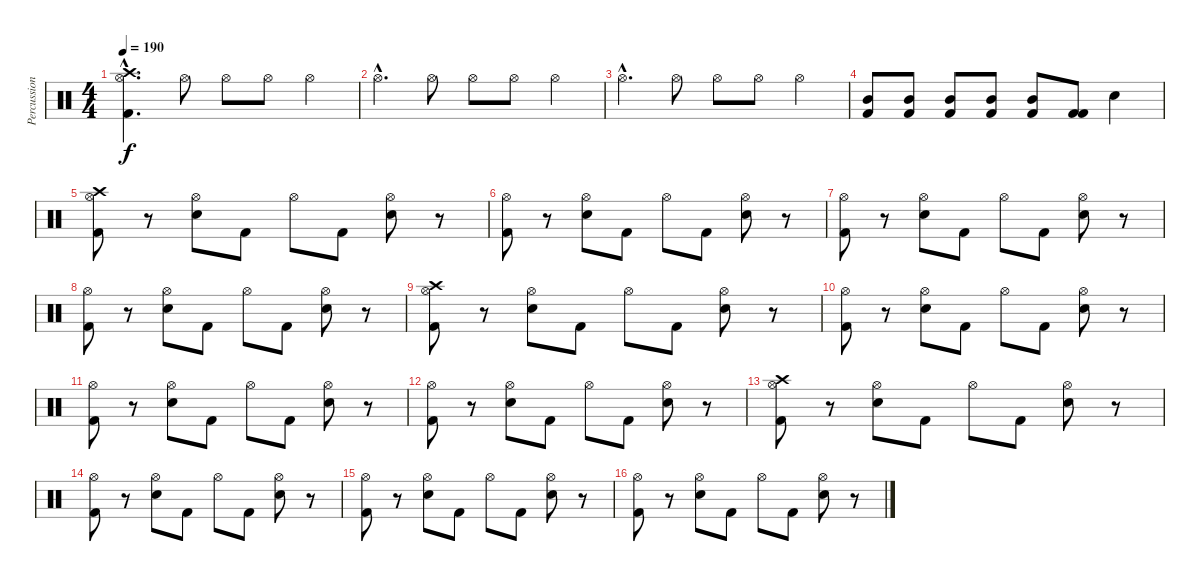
\track ("Percussioni" "Percussion") {instrument percussion}
\staff {score}
\articulation defaults
\ts (4 4)
\tempo 190
\clef neutral
\ks c
("Hi-Hat (open)"{hac} "Kick (hit) 2"{hac} "Crash high (hit)"{hac}).4{d dy f} "Hi-Hat (open)".8 "Hi-Hat (open)".8 "Hi-Hat (open)".8 "Hi-Hat (open)".4 |
"Hi-Hat (open)"{hac}.4{d} "Hi-Hat (open)".8 "Hi-Hat (open)".8 "Hi-Hat (open)".8 "Hi-Hat (open)".4 |
"Hi-Hat (open)"{hac}.4{d} "Hi-Hat (open)".8 "Hi-Hat (open)".8 "Hi-Hat (open)".8 "Hi-Hat (open)".4 |
("Kick (hit) 2" "Mid Tom (hit)").8 ("Kick (hit) 2" "Mid Tom (hit)").8 ("Kick (hit) 2" "Mid Tom (hit)").8 ("Kick (hit) 2" "Mid Tom (hit)").8 ("Kick (hit) 2" "Mid Tom (hit)").8 ("Kick (hit) 2" "Kick (hit) 2").8 "Snare (hit) 2".4 |
("Hi-Hat (open)" "Crash high (hit)" "Kick (hit) 2").8 r.8 ("Hi-Hat (open)" "Snare (hit) 2").8 "Kick (hit) 2".8 "Hi-Hat (open)".8 "Kick (hit) 2".8 ("Hi-Hat (open)" "Snare (hit) 2").8 r.8 |
("Hi-Hat (open)" "Kick (hit) 2").8 r.8 ("Hi-Hat (open)" "Snare (hit) 2").8 "Kick (hit) 2".8 "Hi-Hat (open)".8 "Kick (hit) 2".8 ("Hi-Hat (open)" "Snare (hit) 2").8 r.8 |
("Hi-Hat (open)" "Kick (hit) 2").8 r.8 ("Hi-Hat (open)" "Snare (hit) 2").8 "Kick (hit) 2".8 "Hi-Hat (open)".8 "Kick (hit) 2".8 ("Hi-Hat (open)" "Snare (hit) 2").8 r.8 |
("Hi-Hat (open)" "Kick (hit) 2").8 r.8 ("Hi-Hat (open)" "Snare (hit) 2").8 "Kick (hit) 2".8 "Hi-Hat (open)".8 "Kick (hit) 2".8 ("Hi-Hat (open)" "Snare (hit) 2").8 r.8 |
("Hi-Hat (open)" "Crash high (hit)" "Kick (hit) 2").8 r.8 ("Hi-Hat (open)" "Snare (hit) 2").8 "Kick (hit) 2".8 "Hi-Hat (open)".8 "Kick (hit) 2".8 ("Hi-Hat (open)" "Snare (hit) 2").8 r.8 |
("Hi-Hat (open)" "Kick (hit) 2").8 r.8 ("Hi-Hat (open)" "Snare (hit) 2").8 "Kick (hit) 2".8 "Hi-Hat (open)".8 "Kick (hit) 2".8 ("Hi-Hat (open)" "Snare (hit) 2").8 r.8 |
("Hi-Hat (open)" "Kick (hit) 2").8 r.8 ("Hi-Hat (open)" "Snare (hit) 2").8 "Kick (hit) 2".8 "Hi-Hat (open)".8 "Kick (hit) 2".8 ("Hi-Hat (open)" "Snare (hit) 2").8 r.8 |
("Hi-Hat (open)" "Kick (hit) 2").8 r.8 ("Hi-Hat (open)" "Snare (hit) 2").8 "Kick (hit) 2".8 "Hi-Hat (open)".8 "Kick (hit) 2".8 ("Hi-Hat (open)" "Snare (hit) 2").8 r.8 |
("Hi-Hat (open)" "Crash high (hit)" "Kick (hit) 2").8 r.8 ("Hi-Hat (open)" "Snare (hit) 2").8 "Kick (hit) 2".8 "Hi-Hat (open)".8 "Kick (hit) 2".8 ("Hi-Hat (open)" "Snare (hit) 2").8 r.8 |
("Hi-Hat (open)" "Kick (hit) 2").8 r.8 ("Hi-Hat (open)" "Snare (hit) 2").8 "Kick (hit) 2".8 "Hi-Hat (open)".8 "Kick (hit) 2".8 ("Hi-Hat (open)" "Snare (hit) 2").8 r.8 |
("Hi-Hat (open)" "Kick (hit) 2").8 r.8 ("Hi-Hat (open)" "Snare (hit) 2").8 "Kick (hit) 2".8 "Hi-Hat (open)".8 "Kick (hit) 2".8 ("Hi-Hat (open)" "Snare (hit) 2").8 r.8 |
("Hi-Hat (open)" "Kick (hit) 2").8 r.8 ("Hi-Hat (open)" "Snare (hit) 2").8 "Kick (hit) 2".8 "Hi-Hat (open)".8 "Kick (hit) 2".8 ("Hi-Hat (open)" "Snare (hit) 2").8 r.8
